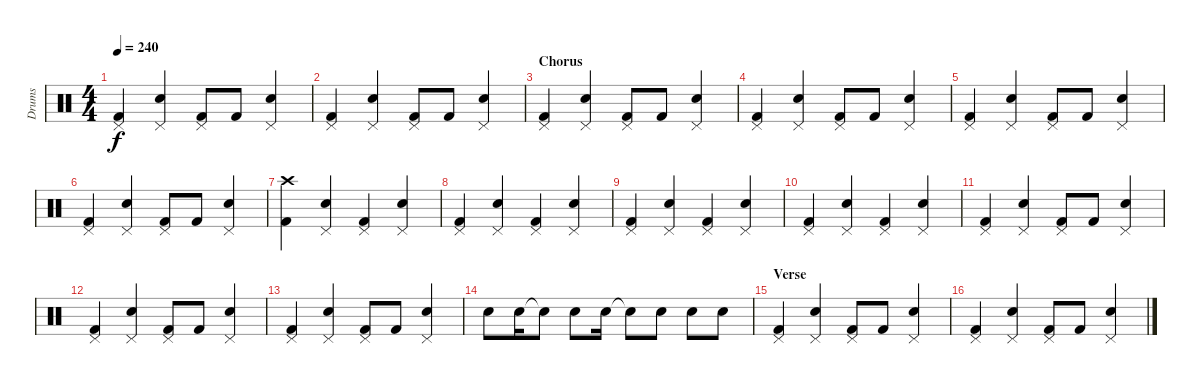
\track ("Drums" "Drums") {instrument percussion}
\staff {score}
\articulation defaults
\ts (4 4)
\tempo 240
\clef neutral
\ks c
("Pedal Hi-Hat (hit)" "Kick (hit) 2").4{dy f} ("Pedal Hi-Hat (hit)" "Snare (hit) 2").4 ("Pedal Hi-Hat (hit)" "Kick (hit) 2").8 "Kick (hit) 2".8 ("Pedal Hi-Hat (hit)" "Snare (hit) 2").4 |
("Pedal Hi-Hat (hit)" "Kick (hit) 2").4 ("Pedal Hi-Hat (hit)" "Snare (hit) 2").4 ("Pedal Hi-Hat (hit)" "Kick (hit) 2").8 "Kick (hit) 2".8 ("Pedal Hi-Hat (hit)" "Snare (hit) 2").4 |
\section ("" "Chorus")
("Pedal Hi-Hat (hit)" "Kick (hit) 2").4 ("Pedal Hi-Hat (hit)" "Snare (hit) 2").4 ("Pedal Hi-Hat (hit)" "Kick (hit) 2").8 "Kick (hit) 2".8 ("Pedal Hi-Hat (hit)" "Snare (hit) 2").4 |
("Pedal Hi-Hat (hit)" "Kick (hit) 2").4 ("Pedal Hi-Hat (hit)" "Snare (hit) 2").4 ("Pedal Hi-Hat (hit)" "Kick (hit) 2").8 "Kick (hit) 2".8 ("Pedal Hi-Hat (hit)" "Snare (hit) 2").4 |
("Pedal Hi-Hat (hit)" "Kick (hit) 2").4 ("Pedal Hi-Hat (hit)" "Snare (hit) 2").4 ("Pedal Hi-Hat (hit)" "Kick (hit) 2").8 "Kick (hit) 2".8 ("Pedal Hi-Hat (hit)" "Snare (hit) 2").4 |
("Pedal Hi-Hat (hit)" "Kick (hit) 2").4 ("Pedal Hi-Hat (hit)" "Snare (hit) 2").4 ("Pedal Hi-Hat (hit)" "Kick (hit) 2").8 "Kick (hit) 2".8 ("Pedal Hi-Hat (hit)" "Snare (hit) 2").4 |
("Crash high (hit)" "Kick (hit) 2").4 ("Pedal Hi-Hat (hit)" "Snare (hit) 2").4 ("Pedal Hi-Hat (hit)" "Kick (hit) 2").4 ("Pedal Hi-Hat (hit)" "Snare (hit) 2").4 |
("Pedal Hi-Hat (hit)" "Kick (hit) 2").4 ("Pedal Hi-Hat (hit)" "Snare (hit) 2").4 ("Pedal Hi-Hat (hit)" "Kick (hit) 2").4 ("Pedal Hi-Hat (hit)" "Snare (hit) 2").4 |
("Pedal Hi-Hat (hit)" "Kick (hit) 2").4 ("Pedal Hi-Hat (hit)" "Snare (hit) 2").4 ("Pedal Hi-Hat (hit)" "Kick (hit) 2").4 ("Pedal Hi-Hat (hit)" "Snare (hit) 2").4 |
("Pedal Hi-Hat (hit)" "Kick (hit) 2").4 ("Pedal Hi-Hat (hit)" "Snare (hit) 2").4 ("Pedal Hi-Hat (hit)" "Kick (hit) 2").4 ("Pedal Hi-Hat (hit)" "Snare (hit) 2").4 |
("Pedal Hi-Hat (hit)" "Kick (hit) 2").4 ("Pedal Hi-Hat (hit)" "Snare (hit) 2").4 ("Pedal Hi-Hat (hit)" "Kick (hit) 2").8 "Kick (hit) 2".8 ("Pedal Hi-Hat (hit)" "Snare (hit) 2").4 |
("Pedal Hi-Hat (hit)" "Kick (hit) 2").4 ("Pedal Hi-Hat (hit)" "Snare (hit) 2").4 ("Pedal Hi-Hat (hit)" "Kick (hit) 2").8 "Kick (hit) 2".8 ("Pedal Hi-Hat (hit)" "Snare (hit) 2").4 |
("Pedal Hi-Hat (hit)" "Kick (hit) 2").4 ("Pedal Hi-Hat (hit)" "Snare (hit) 2").4 ("Pedal Hi-Hat (hit)" "Kick (hit) 2").8 "Kick (hit) 2".8 ("Pedal Hi-Hat (hit)" "Snare (hit) 2").4 |
"Electric Snare (hit)".8 "Electric Snare (hit)".16 "Electric Snare (hit)"{t}.8 "Electric Snare (hit)".8 "Electric Snare (hit)".16 "Electric Snare (hit)"{t}.8 "Electric Snare (hit)".8 "Electric Snare (hit)".8 "Electric Snare (hit)".8 |
\section ("" "Verse")
("Pedal Hi-Hat (hit)" "Kick (hit) 2").4 ("Pedal Hi-Hat (hit)" "Snare (hit) 2").4 ("Pedal Hi-Hat (hit)" "Kick (hit) 2").8 "Kick (hit) 2".8 ("Pedal Hi-Hat (hit)" "Snare (hit) 2").4 |
("Pedal Hi-Hat (hit)" "Kick (hit) 2").4 ("Pedal Hi-Hat (hit)" "Snare (hit) 2").4 ("Pedal Hi-Hat (hit)" "Kick (hit) 2").8 "Kick (hit) 2".8 ("Pedal Hi-Hat (hit)" "Snare (hit) 2").4
